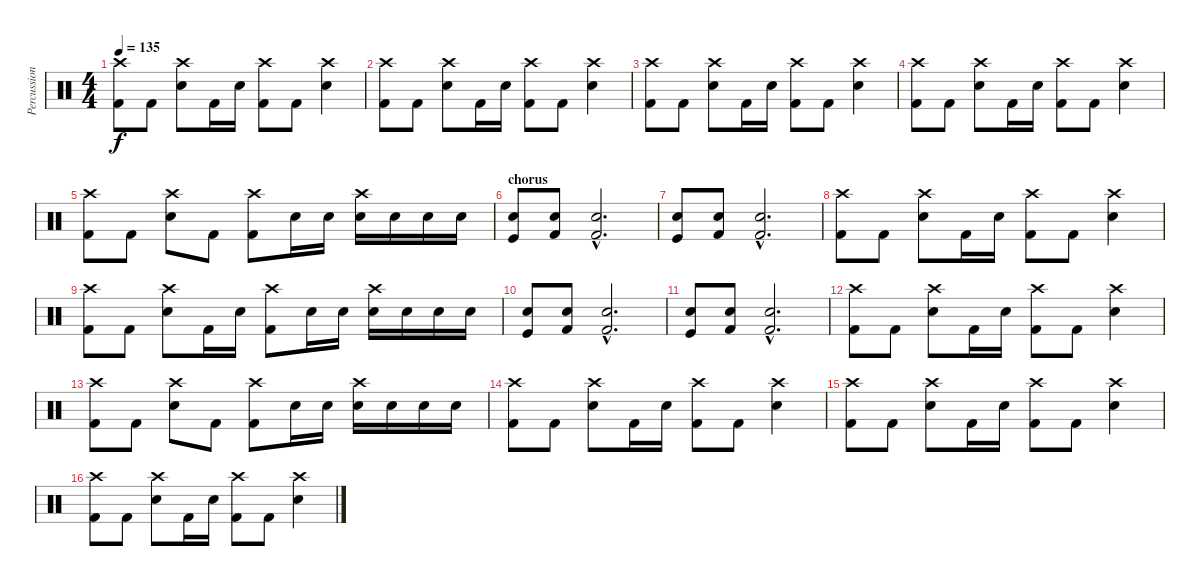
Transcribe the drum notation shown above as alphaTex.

\track ("Percussion" "Percussion") {instrument percussion}
\staff {score}
\articulation defaults
\ts (4 4)
\tempo 135
\clef neutral
\ks c
("Kick (hit) 2" "Crash high (hit)").8{dy f} "Kick (hit) 2".8 ("Snare (hit) 2" "Crash high (hit)").8 "Kick (hit) 2".16 "Snare (hit) 2".16 ("Kick (hit) 2" "Crash high (hit)").8 "Kick (hit) 2".8 ("Snare (hit) 2" "Crash high (hit)").4 |
("Kick (hit) 2" "Crash high (hit)").8 "Kick (hit) 2".8 ("Snare (hit) 2" "Crash high (hit)").8 "Kick (hit) 2".16 "Snare (hit) 2".16 ("Kick (hit) 2" "Crash high (hit)").8 "Kick (hit) 2".8 ("Snare (hit) 2" "Crash high (hit)").4 |
("Kick (hit) 2" "Crash high (hit)").8 "Kick (hit) 2".8 ("Snare (hit) 2" "Crash high (hit)").8 "Kick (hit) 2".16 "Snare (hit) 2".16 ("Kick (hit) 2" "Crash high (hit)").8 "Kick (hit) 2".8 ("Snare (hit) 2" "Crash high (hit)").4 |
("Kick (hit) 2" "Crash high (hit)").8 "Kick (hit) 2".8 ("Snare (hit) 2" "Crash high (hit)").8 "Kick (hit) 2".16 "Snare (hit) 2".16 ("Kick (hit) 2" "Crash high (hit)").8 "Kick (hit) 2".8 ("Snare (hit) 2" "Crash high (hit)").4 |
("Kick (hit) 2" "Crash high (hit)").8 "Kick (hit) 2".8 ("Snare (hit) 2" "Crash high (hit)").8 "Kick (hit) 2".8 ("Kick (hit) 2" "Crash high (hit)").8 "Snare (hit) 2".16 "Snare (hit) 2".16 ("Snare (hit) 2" "Crash high (hit)").16 "Snare (hit) 2".16 "Snare (hit) 2".16 "Snare (hit) 2".16 |
\section ("" "chorus")
("Kick (hit)" "Snare (hit) 2").8 ("Kick (hit) 2" "Snare (hit) 2").8 ("Kick (hit) 2"{hac} "Snare (hit) 2"{hac}).2{d} |
("Kick (hit)" "Snare (hit) 2").8 ("Kick (hit) 2" "Snare (hit) 2").8 ("Kick (hit) 2"{hac} "Snare (hit) 2"{hac}).2{d} |
("Kick (hit) 2" "Crash high (hit)").8 "Kick (hit) 2".8 ("Snare (hit) 2" "Crash high (hit)").8 "Kick (hit) 2".16 "Snare (hit) 2".16 ("Kick (hit) 2" "Crash high (hit)").8 "Kick (hit) 2".8 ("Snare (hit) 2" "Crash high (hit)").4 |
("Kick (hit) 2" "Crash high (hit)").8 "Kick (hit) 2".8 ("Snare (hit) 2" "Crash high (hit)").8 "Kick (hit) 2".16 "Snare (hit) 2".16 ("Kick (hit) 2" "Crash high (hit)").8 "Snare (hit) 2".16 "Snare (hit) 2".16 ("Snare (hit) 2" "Crash high (hit)").16 "Snare (hit) 2".16 "Snare (hit) 2".16 "Snare (hit) 2".16 |
("Kick (hit)" "Snare (hit) 2").8 ("Kick (hit) 2" "Snare (hit) 2").8 ("Kick (hit) 2"{hac} "Snare (hit) 2"{hac}).2{d} |
("Kick (hit)" "Snare (hit) 2").8 ("Kick (hit) 2" "Snare (hit) 2").8 ("Kick (hit) 2"{hac} "Snare (hit) 2"{hac}).2{d} |
("Kick (hit) 2" "Crash high (hit)").8 "Kick (hit) 2".8 ("Snare (hit) 2" "Crash high (hit)").8 "Kick (hit) 2".16 "Snare (hit) 2".16 ("Kick (hit) 2" "Crash high (hit)").8 "Kick (hit) 2".8 ("Snare (hit) 2" "Crash high (hit)").4 |
("Kick (hit) 2" "Crash high (hit)").8 "Kick (hit) 2".8 ("Snare (hit) 2" "Crash high (hit)").8 "Kick (hit) 2".8 ("Kick (hit) 2" "Crash high (hit)").8 "Snare (hit) 2".16 "Snare (hit) 2".16 ("Snare (hit) 2" "Crash high (hit)").16 "Snare (hit) 2".16 "Snare (hit) 2".16 "Snare (hit) 2".16 |
("Kick (hit) 2" "Crash high (hit)").8 "Kick (hit) 2".8 ("Snare (hit) 2" "Crash high (hit)").8 "Kick (hit) 2".16 "Snare (hit) 2".16 ("Kick (hit) 2" "Crash high (hit)").8 "Kick (hit) 2".8 ("Snare (hit) 2" "Crash high (hit)").4 |
("Kick (hit) 2" "Crash high (hit)").8 "Kick (hit) 2".8 ("Snare (hit) 2" "Crash high (hit)").8 "Kick (hit) 2".16 "Snare (hit) 2".16 ("Kick (hit) 2" "Crash high (hit)").8 "Kick (hit) 2".8 ("Snare (hit) 2" "Crash high (hit)").4 |
("Kick (hit) 2" "Crash high (hit)").8 "Kick (hit) 2".8 ("Snare (hit) 2" "Crash high (hit)").8 "Kick (hit) 2".16 "Snare (hit) 2".16 ("Kick (hit) 2" "Crash high (hit)").8 "Kick (hit) 2".8 ("Snare (hit) 2" "Crash high (hit)").4
